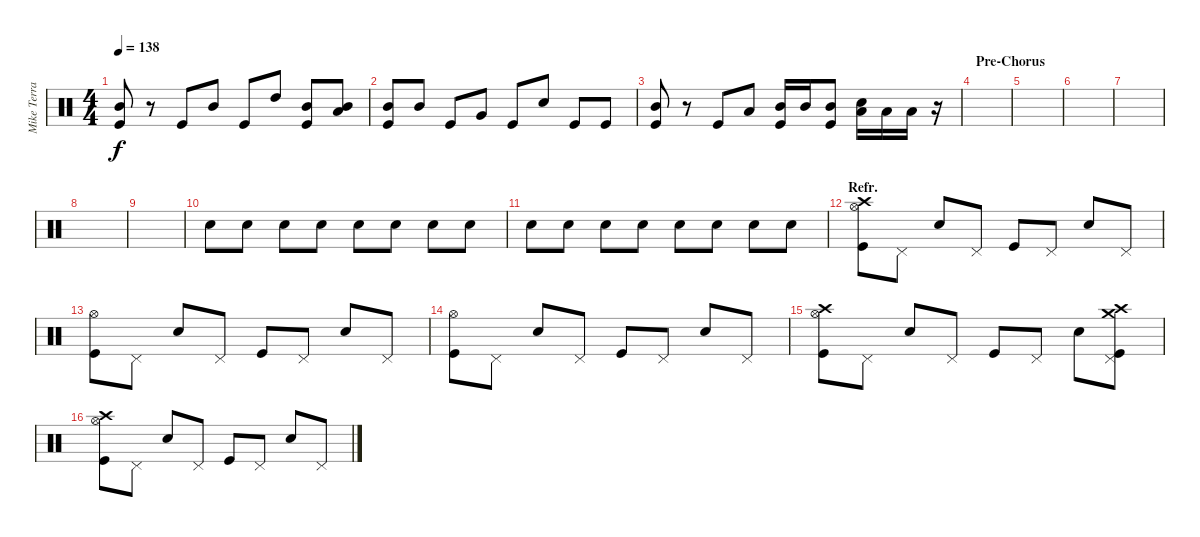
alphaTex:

\track ("Mike Terrana" "Mike Terra") {instrument percussion}
\staff {score}
\articulation defaults
\ts (4 4)
\tempo 138
\clef neutral
\ks c
("Mid Tom (hit)" "Kick (hit)").8{dy f} r.8 "Kick (hit)".8 "Mid Tom (hit)".8 "Kick (hit)".8 "High Tom (hit)".8 ("Mid Tom (hit)" "Kick (hit)").8 ("Low Tom (hit)" "Mid Tom (hit)").8 |
("Mid Tom (hit)" "Kick (hit)").8 "Mid Tom (hit)".8 "Kick (hit)".8 "Very Low Tom (hit)".8 "Kick (hit)".8 "Snare (hit) 2".8 "Kick (hit)".8 "Kick (hit)".8 |
("Mid Tom (hit)" "Kick (hit)").8 r.8 "Kick (hit)".8 "Low Tom (hit)".8 ("Mid Tom (hit)" "Kick (hit)").16 "Mid Tom (hit)".16 ("Mid Tom (hit)" "Kick (hit)").8 ("Snare (hit) 2" "Low Tom (hit)").16 "Low Tom (hit)".16 "Low Tom (hit)".16 r.16 |
\section ("" "Pre-Chorus")
|
|
|
|
|
|
"Snare (hit) 2".8 "Snare (hit) 2".8 "Snare (hit) 2".8 "Snare (hit) 2".8 "Snare (hit) 2".8 "Snare (hit) 2".8 "Snare (hit) 2".8 "Snare (hit) 2".8 |
"Snare (hit) 2".8 "Snare (hit) 2".8 "Snare (hit) 2".8 "Snare (hit) 2".8 "Snare (hit) 2".8 "Snare (hit) 2".8 "Snare (hit) 2".8 "Snare (hit) 2".8 |
\section ("" "Refr.")
("Hi-Hat (open)" "Crash high (hit)" "Kick (hit)").8 "Pedal Hi-Hat (hit)".8 "Snare (hit) 2".8 "Pedal Hi-Hat (hit)".8 "Kick (hit)".8 "Pedal Hi-Hat (hit)".8 "Snare (hit) 2".8 "Pedal Hi-Hat (hit)".8 |
("Hi-Hat (open)" "Kick (hit)").8 "Pedal Hi-Hat (hit)".8 "Snare (hit) 2".8 "Pedal Hi-Hat (hit)".8 "Kick (hit)".8 "Pedal Hi-Hat (hit)".8 "Snare (hit) 2".8 "Pedal Hi-Hat (hit)".8 |
("Hi-Hat (open)" "Kick (hit)").8 "Pedal Hi-Hat (hit)".8 "Snare (hit) 2".8 "Pedal Hi-Hat (hit)".8 "Kick (hit)".8 "Pedal Hi-Hat (hit)".8 "Snare (hit) 2".8 "Pedal Hi-Hat (hit)".8 |
("Hi-Hat (open)" "Crash high (hit)" "Kick (hit)").8 "Pedal Hi-Hat (hit)".8 "Snare (hit) 2".8 "Pedal Hi-Hat (hit)".8 "Kick (hit)".8 "Pedal Hi-Hat (hit)".8 "Snare (hit) 2".8 ("Pedal Hi-Hat (hit)" "Crash high (hit)" "Crash medium (hit)" "Kick (hit)").8 |
("Hi-Hat (open)" "Crash high (hit)" "Kick (hit)").8 "Pedal Hi-Hat (hit)".8 "Snare (hit) 2".8 "Pedal Hi-Hat (hit)".8 "Kick (hit)".8 "Pedal Hi-Hat (hit)".8 "Snare (hit) 2".8 "Pedal Hi-Hat (hit)".8
